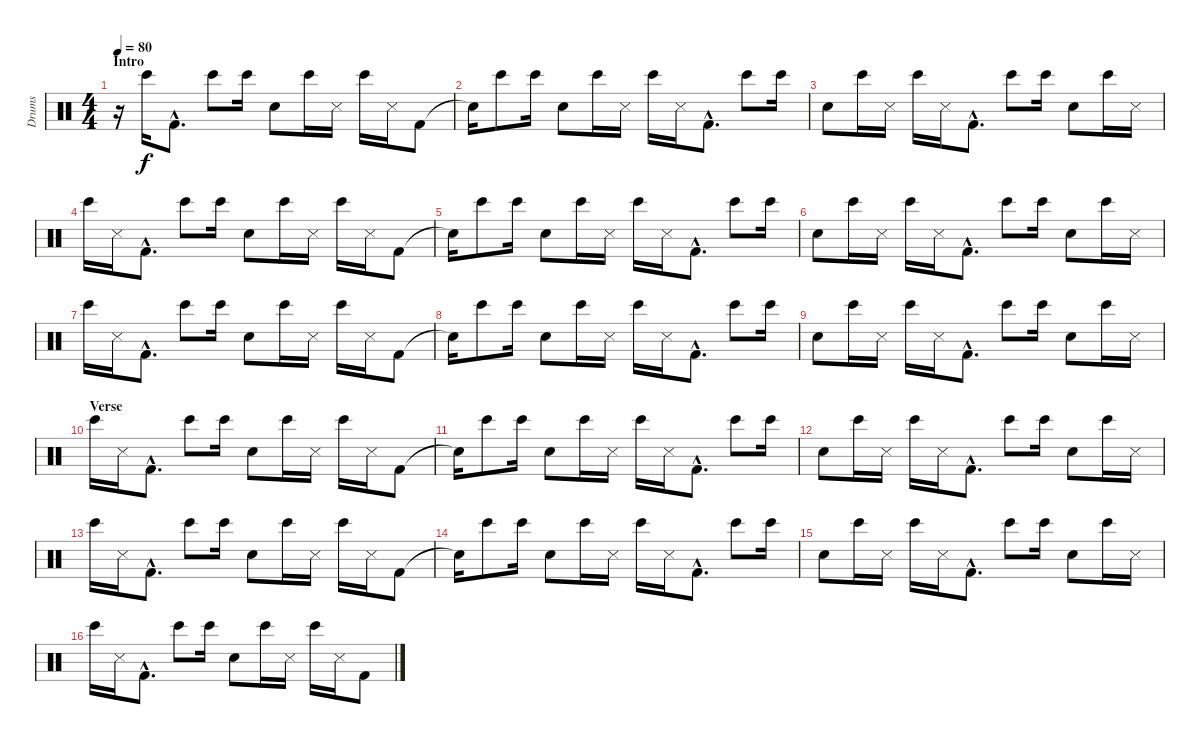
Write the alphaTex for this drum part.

\track ("Drums" "Drums") {instrument percussion}
\staff {score}
\articulation defaults
\ts (4 4)
\section ("" "Intro")
\tempo 80
\clef neutral
\ks c
r.16{dy f} "Bongo High (hit)".16 "Kick (hit) 2"{hac}.8{d} "Bongo High (hit)".8 "Bongo High (hit)".16 "Electric Snare (hit)".8 "Bongo High (hit)".16 "Snare (side stick) 3".16 "Bongo High (hit)".16 "Snare (side stick) 3".16 "Kick (hit) 2".8 |
"Snare (hit)"{t}.16 "Bongo High (hit)".8 "Bongo High (hit)".16 "Electric Snare (hit)".8 "Bongo High (hit)".16 "Snare (side stick) 3".16 "Bongo High (hit)".16 "Snare (side stick) 3".16 "Kick (hit) 2"{hac}.8{d} "Bongo High (hit)".8 "Bongo High (hit)".16 |
"Electric Snare (hit)".8 "Bongo High (hit)".16 "Snare (side stick) 3".16 "Bongo High (hit)".16 "Snare (side stick) 3".16 "Kick (hit) 2"{hac}.8{d} "Bongo High (hit)".8 "Bongo High (hit)".16 "Electric Snare (hit)".8 "Bongo High (hit)".16 "Snare (side stick) 3".16 |
"Bongo High (hit)".16 "Snare (side stick) 3".16 "Kick (hit) 2"{hac}.8{d} "Bongo High (hit)".8 "Bongo High (hit)".16 "Electric Snare (hit)".8 "Bongo High (hit)".16 "Snare (side stick) 3".16 "Bongo High (hit)".16 "Snare (side stick) 3".16 "Kick (hit) 2".8 |
"Snare (hit)"{t}.16 "Bongo High (hit)".8 "Bongo High (hit)".16 "Electric Snare (hit)".8 "Bongo High (hit)".16 "Snare (side stick) 3".16 "Bongo High (hit)".16 "Snare (side stick) 3".16 "Kick (hit) 2"{hac}.8{d} "Bongo High (hit)".8 "Bongo High (hit)".16 |
"Electric Snare (hit)".8 "Bongo High (hit)".16 "Snare (side stick) 3".16 "Bongo High (hit)".16 "Snare (side stick) 3".16 "Kick (hit) 2"{hac}.8{d} "Bongo High (hit)".8 "Bongo High (hit)".16 "Electric Snare (hit)".8 "Bongo High (hit)".16 "Snare (side stick) 3".16 |
"Bongo High (hit)".16 "Snare (side stick) 3".16 "Kick (hit) 2"{hac}.8{d} "Bongo High (hit)".8 "Bongo High (hit)".16 "Electric Snare (hit)".8 "Bongo High (hit)".16 "Snare (side stick) 3".16 "Bongo High (hit)".16 "Snare (side stick) 3".16 "Kick (hit) 2".8 |
"Snare (hit)"{t}.16 "Bongo High (hit)".8 "Bongo High (hit)".16 "Electric Snare (hit)".8 "Bongo High (hit)".16 "Snare (side stick) 3".16 "Bongo High (hit)".16 "Snare (side stick) 3".16 "Kick (hit) 2"{hac}.8{d} "Bongo High (hit)".8 "Bongo High (hit)".16 |
"Electric Snare (hit)".8 "Bongo High (hit)".16 "Snare (side stick) 3".16 "Bongo High (hit)".16 "Snare (side stick) 3".16 "Kick (hit) 2"{hac}.8{d} "Bongo High (hit)".8 "Bongo High (hit)".16 "Electric Snare (hit)".8 "Bongo High (hit)".16 "Snare (side stick) 3".16 |
\section ("" "Verse")
"Bongo High (hit)".16 "Snare (side stick) 3".16 "Kick (hit) 2"{hac}.8{d} "Bongo High (hit)".8 "Bongo High (hit)".16 "Electric Snare (hit)".8 "Bongo High (hit)".16 "Snare (side stick) 3".16 "Bongo High (hit)".16 "Snare (side stick) 3".16 "Kick (hit) 2".8 |
"Snare (hit)"{t}.16 "Bongo High (hit)".8 "Bongo High (hit)".16 "Electric Snare (hit)".8 "Bongo High (hit)".16 "Snare (side stick) 3".16 "Bongo High (hit)".16 "Snare (side stick) 3".16 "Kick (hit) 2"{hac}.8{d} "Bongo High (hit)".8 "Bongo High (hit)".16 |
"Electric Snare (hit)".8 "Bongo High (hit)".16 "Snare (side stick) 3".16 "Bongo High (hit)".16 "Snare (side stick) 3".16 "Kick (hit) 2"{hac}.8{d} "Bongo High (hit)".8 "Bongo High (hit)".16 "Electric Snare (hit)".8 "Bongo High (hit)".16 "Snare (side stick) 3".16 |
"Bongo High (hit)".16 "Snare (side stick) 3".16 "Kick (hit) 2"{hac}.8{d} "Bongo High (hit)".8 "Bongo High (hit)".16 "Electric Snare (hit)".8 "Bongo High (hit)".16 "Snare (side stick) 3".16 "Bongo High (hit)".16 "Snare (side stick) 3".16 "Kick (hit) 2".8 |
"Snare (hit)"{t}.16 "Bongo High (hit)".8 "Bongo High (hit)".16 "Electric Snare (hit)".8 "Bongo High (hit)".16 "Snare (side stick) 3".16 "Bongo High (hit)".16 "Snare (side stick) 3".16 "Kick (hit) 2"{hac}.8{d} "Bongo High (hit)".8 "Bongo High (hit)".16 |
"Electric Snare (hit)".8 "Bongo High (hit)".16 "Snare (side stick) 3".16 "Bongo High (hit)".16 "Snare (side stick) 3".16 "Kick (hit) 2"{hac}.8{d} "Bongo High (hit)".8 "Bongo High (hit)".16 "Electric Snare (hit)".8 "Bongo High (hit)".16 "Snare (side stick) 3".16 |
"Bongo High (hit)".16 "Snare (side stick) 3".16 "Kick (hit) 2"{hac}.8{d} "Bongo High (hit)".8 "Bongo High (hit)".16 "Electric Snare (hit)".8 "Bongo High (hit)".16 "Snare (side stick) 3".16 "Bongo High (hit)".16 "Snare (side stick) 3".16 "Kick (hit) 2".8
